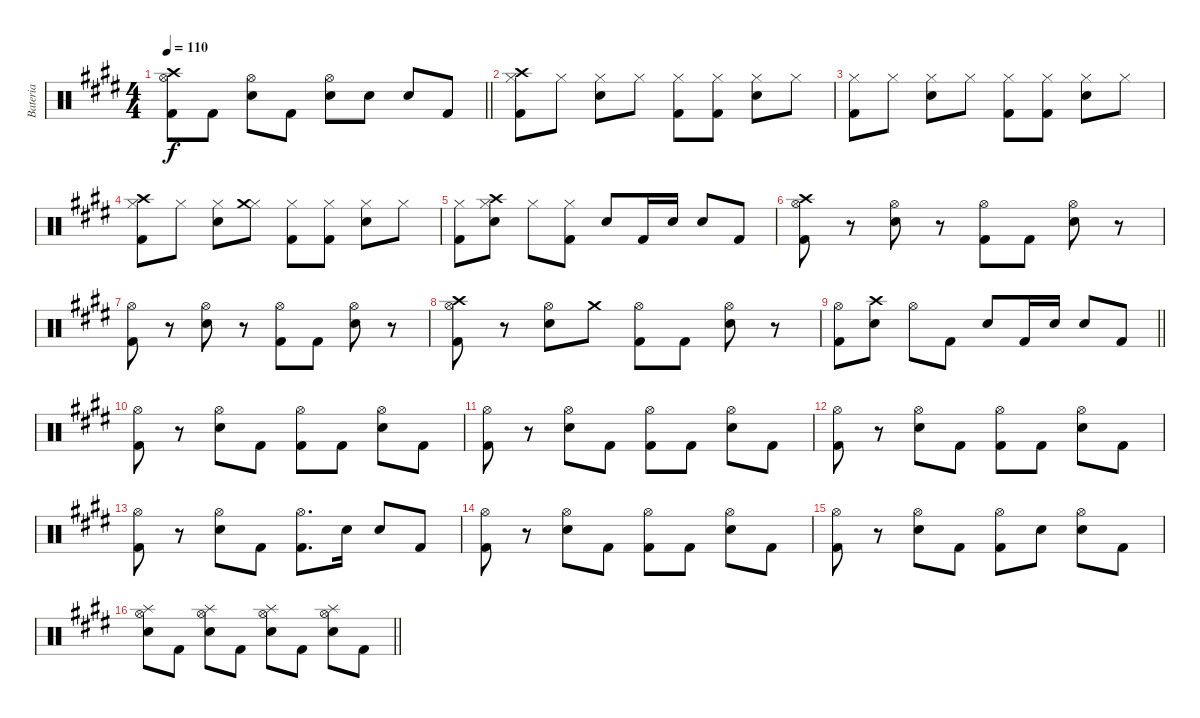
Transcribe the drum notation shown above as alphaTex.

\track ("Bateria" "Bateria") {instrument percussion}
\staff {score}
\articulation defaults
\ts (4 4)
\tempo 110
\clef neutral
\barLineRight lightlight
\ks e
("Hi-Hat (open)" "Kick (hit) 2" "Crash high (hit)").8{dy f} "Kick (hit) 2".8 ("Hi-Hat (open)" "Snare (hit) 2").8 "Kick (hit) 2".8 ("Hi-Hat (open)" "Snare (hit) 2").8 "Snare (hit) 2".8 "Snare (hit) 2".8 "Kick (hit) 2".8 |
\section ("" "")
("Hi-Hat (closed)" "Kick (hit) 2" "Crash high (hit)").8 "Hi-Hat (closed)".8 ("Hi-Hat (closed)" "Snare (hit) 2").8 "Hi-Hat (closed)".8 ("Hi-Hat (closed)" "Kick (hit) 2").8 ("Hi-Hat (closed)" "Kick (hit) 2").8 ("Hi-Hat (closed)" "Snare (hit) 2").8 "Hi-Hat (closed)".8 |
("Hi-Hat (closed)" "Kick (hit) 2").8 "Hi-Hat (closed)".8 ("Hi-Hat (closed)" "Snare (hit) 2").8 "Hi-Hat (closed)".8 ("Hi-Hat (closed)" "Kick (hit) 2").8 ("Hi-Hat (closed)" "Kick (hit) 2").8 ("Hi-Hat (closed)" "Snare (hit) 2").8 "Hi-Hat (closed)".8 |
("Hi-Hat (closed)" "Kick (hit) 2" "Crash high (hit)").8 "Hi-Hat (closed)".8 ("Hi-Hat (closed)" "Snare (hit) 2").8 ("Hi-Hat (closed)" "Crash medium (hit)").8 ("Hi-Hat (closed)" "Kick (hit) 2").8 ("Hi-Hat (closed)" "Kick (hit) 2").8 ("Hi-Hat (closed)" "Snare (hit) 2").8 "Hi-Hat (closed)".8 |
("Hi-Hat (closed)" "Kick (hit) 2").8 ("Hi-Hat (closed)" "Snare (hit) 2" "Crash high (hit)").8 "Hi-Hat (closed)".8 ("Hi-Hat (closed)" "Kick (hit) 2").8 "Snare (hit) 2".8 "Kick (hit) 2".16 "Snare (hit) 2".16 "Snare (hit) 2".8 "Kick (hit) 2".8 |
("Hi-Hat (open)" "Kick (hit) 2" "Crash high (hit)").8 r.8 ("Hi-Hat (open)" "Snare (hit) 2").8 r.8 ("Hi-Hat (open)" "Kick (hit) 2").8 "Kick (hit) 2".8 ("Hi-Hat (open)" "Snare (hit) 2").8 r.8 |
("Hi-Hat (open)" "Kick (hit) 2").8 r.8 ("Hi-Hat (open)" "Snare (hit) 2").8 r.8 ("Hi-Hat (open)" "Kick (hit) 2").8 "Kick (hit) 2".8 ("Hi-Hat (open)" "Snare (hit) 2").8 r.8 |
("Hi-Hat (open)" "Kick (hit) 2" "Crash high (hit)").8 r.8 ("Hi-Hat (open)" "Snare (hit) 2").8 "Crash medium (hit)".8 ("Hi-Hat (open)" "Kick (hit) 2").8 "Kick (hit) 2".8 ("Hi-Hat (open)" "Snare (hit) 2").8 r.8 |
\barLineRight lightlight
("Hi-Hat (open)" "Kick (hit) 2").8 ("Snare (hit) 2" "Crash high (hit)").8 "Hi-Hat (open)".8 "Kick (hit) 2".8 "Snare (hit) 2".8 "Kick (hit) 2".16 "Snare (hit) 2".16 "Snare (hit) 2".8 "Kick (hit) 2".8 |
\section ("" "")
("Hi-Hat (open)" "Kick (hit) 2").8 r.8 ("Hi-Hat (open)" "Snare (hit) 2").8 "Kick (hit) 2".8 ("Hi-Hat (open)" "Kick (hit) 2").8 "Kick (hit) 2".8 ("Hi-Hat (open)" "Snare (hit) 2").8 "Kick (hit) 2".8 |
("Hi-Hat (open)" "Kick (hit) 2").8 r.8 ("Hi-Hat (open)" "Snare (hit) 2").8 "Kick (hit) 2".8 ("Hi-Hat (open)" "Kick (hit) 2").8 "Kick (hit) 2".8 ("Hi-Hat (open)" "Snare (hit) 2").8 "Kick (hit) 2".8 |
("Hi-Hat (open)" "Kick (hit) 2").8 r.8 ("Hi-Hat (open)" "Snare (hit) 2").8 "Kick (hit) 2".8 ("Hi-Hat (open)" "Kick (hit) 2").8 "Kick (hit) 2".8 ("Hi-Hat (open)" "Snare (hit) 2").8 "Kick (hit) 2".8 |
("Hi-Hat (open)" "Kick (hit) 2").8 r.8 ("Hi-Hat (open)" "Snare (hit) 2").8 "Kick (hit) 2".8 ("Hi-Hat (open)" "Kick (hit) 2").8{d} "Snare (hit) 2".16 "Snare (hit) 2".8 "Kick (hit) 2".8 |
("Hi-Hat (open)" "Kick (hit) 2").8 r.8 ("Hi-Hat (open)" "Snare (hit) 2").8 "Kick (hit) 2".8 ("Hi-Hat (open)" "Kick (hit) 2").8 "Kick (hit) 2".8 ("Hi-Hat (open)" "Snare (hit) 2").8 "Kick (hit) 2".8 |
("Hi-Hat (open)" "Kick (hit) 2").8 r.8 ("Hi-Hat (open)" "Snare (hit) 2").8 "Kick (hit) 2".8 ("Hi-Hat (open)" "Kick (hit) 2").8 "Snare (hit) 2".8 ("Hi-Hat (open)" "Snare (hit) 2").8 "Kick (hit) 2".8 |
\barLineRight lightlight
("Hi-Hat (open)" "Snare (hit) 2" "Splash (hit)").8 "Kick (hit) 2".8 ("Hi-Hat (open)" "Snare (hit) 2" "Splash (hit)").8 "Kick (hit) 2".8 ("Hi-Hat (open)" "Snare (hit) 2" "Splash (hit)").8 "Kick (hit) 2".8 ("Hi-Hat (open)" "Snare (hit) 2" "Splash (hit)").8 "Kick (hit) 2".8
